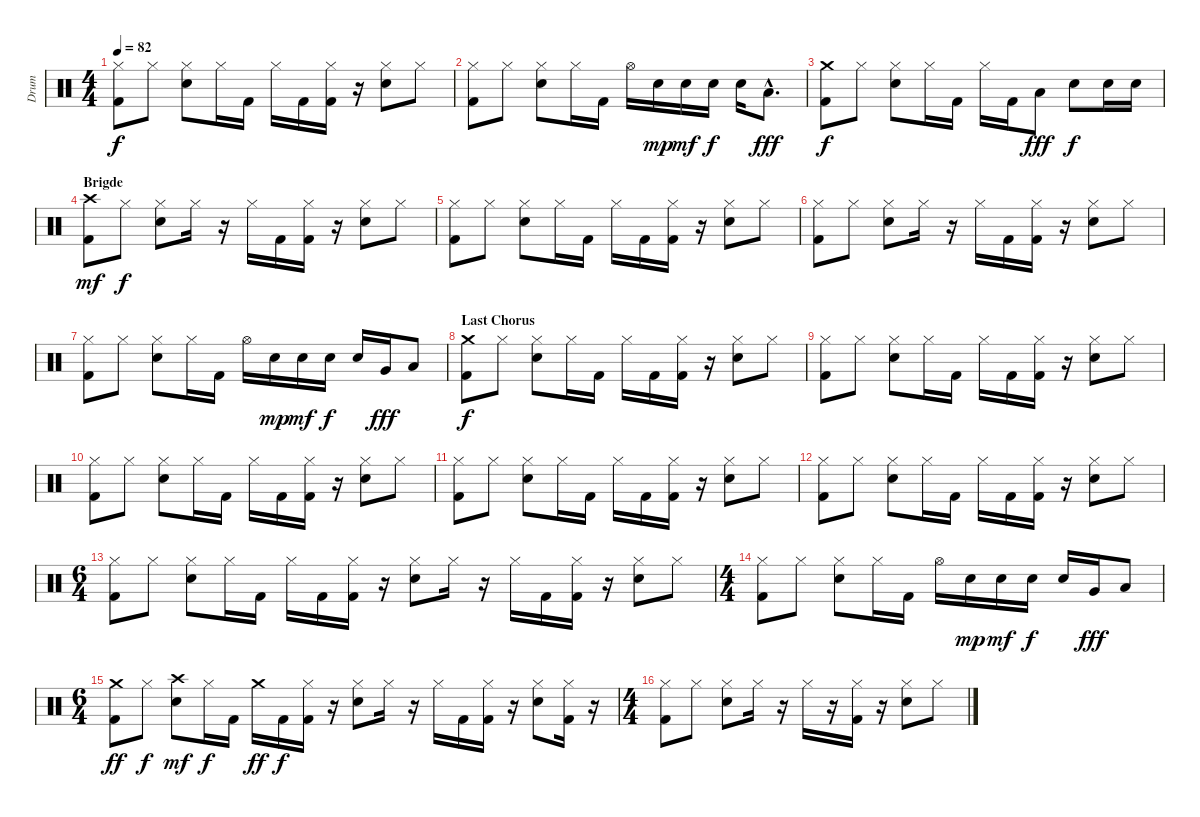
\track ("Drum" "Drum") {instrument percussion}
\staff {score}
\articulation defaults
\ts (4 4)
\tempo 82
\clef neutral
\ks c
("Hi-Hat (closed)" "Kick (hit) 2").8{dy f} "Hi-Hat (closed)".8 ("Hi-Hat (closed)" "Electric Snare (hit)").8 "Hi-Hat (closed)".16 "Kick (hit) 2".16 "Hi-Hat (closed)".16 "Kick (hit) 2".16 ("Hi-Hat (closed)" "Kick (hit) 2").16 r.16 ("Hi-Hat (closed)" "Electric Snare (hit)").8 "Hi-Hat (closed)".8 |
("Hi-Hat (closed)" "Kick (hit) 2").8 "Hi-Hat (closed)".8 ("Hi-Hat (closed)" "Electric Snare (hit)").8 "Hi-Hat (closed)".16 "Kick (hit) 2".16 "Hi-Hat (open)".16 "Electric Snare (hit)".16{dy mp} "Electric Snare (hit)".16{dy mf} "Electric Snare (hit)".16{dy f} "Electric Snare (hit)".16 "Low Tom (hit)"{hac}.8{d dy fff} |
("Crash medium (hit)" "Kick (hit) 2").8{dy f} "Hi-Hat (closed)".8 ("Hi-Hat (closed)" "Electric Snare (hit)").8 "Hi-Hat (closed)".16 "Kick (hit) 2".16 "Hi-Hat (closed)".16 "Kick (hit) 2".16 "Low Tom (hit)".8{dy fff} "Electric Snare (hit)".8{dy f} "Electric Snare (hit)".16 "Electric Snare (hit)".16 |
\section ("" "Brigde")
("Crash high (hit)" "Kick (hit) 2").8{dy mf} "Hi-Hat (closed)".8{dy f} ("Hi-Hat (closed)" "Electric Snare (hit)").8 "Hi-Hat (closed)".16 r.16 "Hi-Hat (closed)".16 "Kick (hit) 2".16 ("Hi-Hat (closed)" "Kick (hit) 2").16 r.16 ("Hi-Hat (closed)" "Electric Snare (hit)").8 "Hi-Hat (closed)".8 |
("Hi-Hat (closed)" "Kick (hit) 2").8 "Hi-Hat (closed)".8 ("Hi-Hat (closed)" "Electric Snare (hit)").8 "Hi-Hat (closed)".16 "Kick (hit) 2".16 "Hi-Hat (closed)".16 "Kick (hit) 2".16 ("Hi-Hat (closed)" "Kick (hit) 2").16 r.16 ("Hi-Hat (closed)" "Electric Snare (hit)").8 "Hi-Hat (closed)".8 |
("Hi-Hat (closed)" "Kick (hit) 2").8 "Hi-Hat (closed)".8 ("Hi-Hat (closed)" "Electric Snare (hit)").8 "Hi-Hat (closed)".16 r.16 "Hi-Hat (closed)".16 "Kick (hit) 2".16 ("Hi-Hat (closed)" "Kick (hit) 2").16 r.16 ("Hi-Hat (closed)" "Electric Snare (hit)").8 "Hi-Hat (closed)".8 |
("Hi-Hat (closed)" "Kick (hit) 2").8 "Hi-Hat (closed)".8 ("Hi-Hat (closed)" "Electric Snare (hit)").8 "Hi-Hat (closed)".16 "Kick (hit) 2".16 "Hi-Hat (open)".16 "Electric Snare (hit)".16{dy mp} "Electric Snare (hit)".16{dy mf} "Electric Snare (hit)".16{dy f} "Electric Snare (hit)".16 "Very Low Tom (hit)".16{dy fff} "Low Tom (hit)".8 |
\section ("" "Last Chorus")
("Crash medium (hit)" "Kick (hit) 2").8{dy f} "Hi-Hat (closed)".8 ("Hi-Hat (closed)" "Electric Snare (hit)").8 "Hi-Hat (closed)".16 "Kick (hit) 2".16 "Hi-Hat (closed)".16 "Kick (hit) 2".16 ("Hi-Hat (closed)" "Kick (hit) 2").16 r.16 ("Hi-Hat (closed)" "Electric Snare (hit)").8 "Hi-Hat (closed)".8 |
("Hi-Hat (closed)" "Kick (hit) 2").8 "Hi-Hat (closed)".8 ("Hi-Hat (closed)" "Electric Snare (hit)").8 "Hi-Hat (closed)".16 "Kick (hit) 2".16 "Hi-Hat (closed)".16 "Kick (hit) 2".16 ("Hi-Hat (closed)" "Kick (hit) 2").16 r.16 ("Hi-Hat (closed)" "Electric Snare (hit)").8 "Hi-Hat (closed)".8 |
("Hi-Hat (closed)" "Kick (hit) 2").8 "Hi-Hat (closed)".8 ("Hi-Hat (closed)" "Electric Snare (hit)").8 "Hi-Hat (closed)".16 "Kick (hit) 2".16 "Hi-Hat (closed)".16 "Kick (hit) 2".16 ("Hi-Hat (closed)" "Kick (hit) 2").16 r.16 ("Hi-Hat (closed)" "Electric Snare (hit)").8 "Hi-Hat (closed)".8 |
("Hi-Hat (closed)" "Kick (hit) 2").8 "Hi-Hat (closed)".8 ("Hi-Hat (closed)" "Electric Snare (hit)").8 "Hi-Hat (closed)".16 "Kick (hit) 2".16 "Hi-Hat (closed)".16 "Kick (hit) 2".16 ("Hi-Hat (closed)" "Kick (hit) 2").16 r.16 ("Hi-Hat (closed)" "Electric Snare (hit)").8 "Hi-Hat (closed)".8 |
("Hi-Hat (closed)" "Kick (hit) 2").8 "Hi-Hat (closed)".8 ("Hi-Hat (closed)" "Electric Snare (hit)").8 "Hi-Hat (closed)".16 "Kick (hit) 2".16 "Hi-Hat (closed)".16 "Kick (hit) 2".16 ("Hi-Hat (closed)" "Kick (hit) 2").16 r.16 ("Hi-Hat (closed)" "Electric Snare (hit)").8 "Hi-Hat (closed)".8 |
\ts (6 4)
("Hi-Hat (closed)" "Kick (hit) 2").8 "Hi-Hat (closed)".8 ("Hi-Hat (closed)" "Electric Snare (hit)").8 "Hi-Hat (closed)".16 "Kick (hit) 2".16 "Hi-Hat (closed)".16 "Kick (hit) 2".16 ("Hi-Hat (closed)" "Kick (hit) 2").16 r.16 ("Hi-Hat (closed)" "Electric Snare (hit)").8 "Hi-Hat (closed)".16 r.16 "Hi-Hat (closed)".16 "Kick (hit) 2".16 ("Hi-Hat (closed)" "Kick (hit) 2").16 r.16 ("Hi-Hat (closed)" "Electric Snare (hit)").8 "Hi-Hat (closed)".8 |
\ts (4 4)
("Hi-Hat (closed)" "Kick (hit) 2").8 "Hi-Hat (closed)".8 ("Hi-Hat (closed)" "Electric Snare (hit)").8 "Hi-Hat (closed)".16 "Kick (hit) 2".16 "Hi-Hat (open)".16 "Electric Snare (hit)".16{dy mp} "Electric Snare (hit)".16{dy mf} "Electric Snare (hit)".16{dy f} "Electric Snare (hit)".16 "Very Low Tom (hit)".16{dy fff} "Low Tom (hit)".8 |
\ts (6 4)
("Crash medium (hit)" "Kick (hit) 2").8{dy ff} "Hi-Hat (closed)".8{dy f} ("Crash high (hit)" "Electric Snare (hit)").8{dy mf} "Hi-Hat (closed)".16{dy f} "Kick (hit) 2".16 "Crash medium (hit)".16{dy ff} "Kick (hit) 2".16{dy f} ("Hi-Hat (closed)" "Kick (hit) 2").16 r.16 ("Hi-Hat (closed)" "Electric Snare (hit)").8 "Hi-Hat (closed)".16 r.16 "Hi-Hat (closed)".16 "Kick (hit) 2".16 ("Hi-Hat (closed)" "Kick (hit) 2").16 r.16 ("Hi-Hat (closed)" "Electric Snare (hit)").8 ("Hi-Hat (closed)" "Kick (hit) 2").16 r.16 |
\ts (4 4)
("Hi-Hat (closed)" "Kick (hit) 2").8 "Hi-Hat (closed)".8 ("Hi-Hat (closed)" "Electric Snare (hit)").8 "Hi-Hat (closed)".16 r.16 "Hi-Hat (closed)".16 r.16 ("Hi-Hat (closed)" "Kick (hit) 2").16 r.16 ("Hi-Hat (closed)" "Electric Snare (hit)").8 "Hi-Hat (closed)".8
